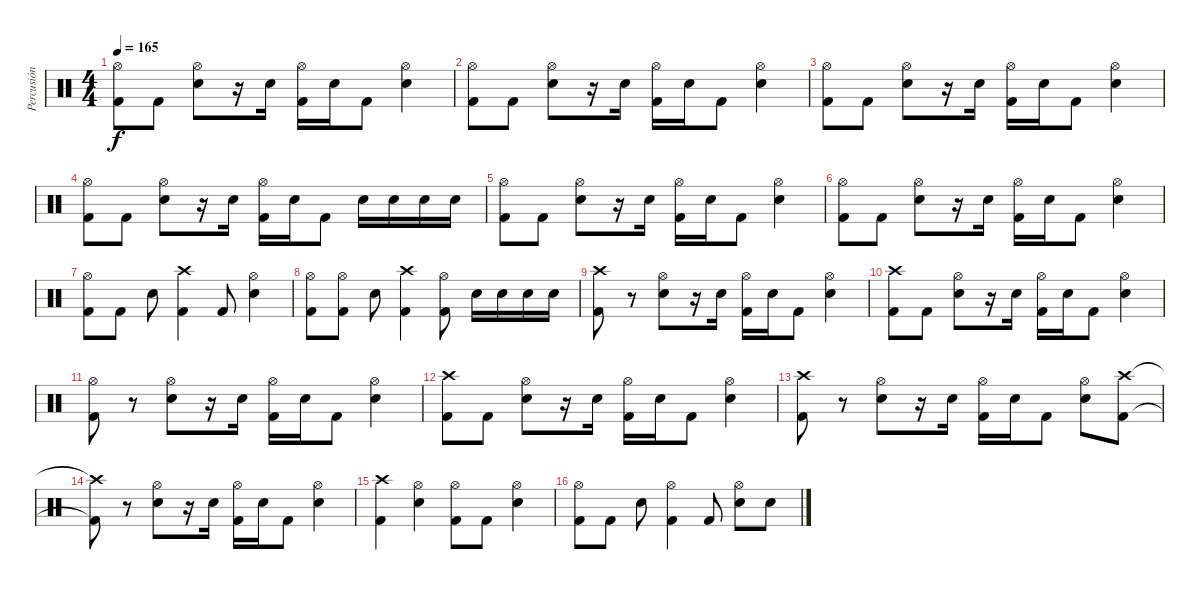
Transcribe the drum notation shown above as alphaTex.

\track ("Percusión" "Percusión") {instrument percussion}
\staff {score}
\articulation defaults
\ts (4 4)
\tempo 165
\clef neutral
\ks c
("Hi-Hat (open)" "Kick (hit) 2").8{dy f} "Kick (hit) 2".8 ("Hi-Hat (open)" "Electric Snare (hit)").8 r.16 "Electric Snare (hit)".16 ("Hi-Hat (open)" "Kick (hit) 2").16 "Electric Snare (hit)".16 "Kick (hit) 2".8 ("Hi-Hat (open)" "Electric Snare (hit)").4 |
("Hi-Hat (open)" "Kick (hit) 2").8 "Kick (hit) 2".8 ("Hi-Hat (open)" "Electric Snare (hit)").8 r.16 "Electric Snare (hit)".16 ("Hi-Hat (open)" "Kick (hit) 2").16 "Electric Snare (hit)".16 "Kick (hit) 2".8 ("Hi-Hat (open)" "Electric Snare (hit)").4 |
("Hi-Hat (open)" "Kick (hit) 2").8 "Kick (hit) 2".8 ("Hi-Hat (open)" "Electric Snare (hit)").8 r.16 "Electric Snare (hit)".16 ("Hi-Hat (open)" "Kick (hit) 2").16 "Electric Snare (hit)".16 "Kick (hit) 2".8 ("Hi-Hat (open)" "Electric Snare (hit)").4 |
("Hi-Hat (open)" "Kick (hit) 2").8 "Kick (hit) 2".8 ("Hi-Hat (open)" "Electric Snare (hit)").8 r.16 "Electric Snare (hit)".16 ("Hi-Hat (open)" "Kick (hit) 2").16 "Electric Snare (hit)".16 "Kick (hit) 2".8 "Electric Snare (hit)".16 "Electric Snare (hit)".16 "Electric Snare (hit)".16 "Electric Snare (hit)".16 |
("Hi-Hat (open)" "Kick (hit) 2").8 "Kick (hit) 2".8 ("Hi-Hat (open)" "Electric Snare (hit)").8 r.16 "Electric Snare (hit)".16 ("Hi-Hat (open)" "Kick (hit) 2").16 "Electric Snare (hit)".16 "Kick (hit) 2".8 ("Hi-Hat (open)" "Electric Snare (hit)").4 |
("Hi-Hat (open)" "Kick (hit) 2").8 "Kick (hit) 2".8 ("Hi-Hat (open)" "Electric Snare (hit)").8 r.16 "Electric Snare (hit)".16 ("Hi-Hat (open)" "Kick (hit) 2").16 "Electric Snare (hit)".16 "Kick (hit) 2".8 ("Hi-Hat (open)" "Electric Snare (hit)").4 |
("Hi-Hat (open)" "Kick (hit) 2").8 "Kick (hit) 2".8 "Electric Snare (hit)".8 ("Crash high (hit)" "Kick (hit) 2").4 "Kick (hit) 2".8 ("Hi-Hat (open)" "Electric Snare (hit)").4 |
("Hi-Hat (open)" "Kick (hit) 2").8 ("Hi-Hat (open)" "Kick (hit) 2").8 "Electric Snare (hit)".8 ("Crash high (hit)" "Kick (hit) 2").4 ("Hi-Hat (open)" "Kick (hit) 2").8 "Electric Snare (hit)".16 "Electric Snare (hit)".16 "Electric Snare (hit)".16 "Electric Snare (hit)".16 |
("Crash high (hit)" "Kick (hit) 2").8 r.8 ("Hi-Hat (open)" "Electric Snare (hit)").8 r.16 "Electric Snare (hit)".16 ("Hi-Hat (open)" "Kick (hit) 2").16 "Electric Snare (hit)".16 "Kick (hit) 2".8 ("Hi-Hat (open)" "Electric Snare (hit)").4 |
("Crash high (hit)" "Kick (hit) 2").8 "Kick (hit) 2".8 ("Hi-Hat (open)" "Electric Snare (hit)").8 r.16 "Electric Snare (hit)".16 ("Hi-Hat (open)" "Kick (hit) 2").16 "Electric Snare (hit)".16 "Kick (hit) 2".8 ("Hi-Hat (open)" "Electric Snare (hit)").4 |
("Hi-Hat (open)" "Kick (hit) 2").8 r.8 ("Hi-Hat (open)" "Electric Snare (hit)").8 r.16 "Electric Snare (hit)".16 ("Hi-Hat (open)" "Kick (hit) 2").16 "Electric Snare (hit)".16 "Kick (hit) 2".8 ("Hi-Hat (open)" "Electric Snare (hit)").4 |
("Crash high (hit)" "Kick (hit) 2").8 "Kick (hit) 2".8 ("Hi-Hat (open)" "Electric Snare (hit)").8 r.16 "Electric Snare (hit)".16 ("Hi-Hat (open)" "Kick (hit) 2").16 "Electric Snare (hit)".16 "Kick (hit) 2".8 ("Hi-Hat (open)" "Electric Snare (hit)").4 |
("Crash high (hit)" "Kick (hit) 2").8 r.8 ("Hi-Hat (open)" "Electric Snare (hit)").8 r.16 "Electric Snare (hit)".16 ("Hi-Hat (open)" "Kick (hit) 2").16 "Electric Snare (hit)".16 "Kick (hit) 2".8 ("Hi-Hat (open)" "Electric Snare (hit)").8 ("Crash high (hit)" "Kick (hit) 2").8 |
("Crash high (hit)"{t} "Kick (hit) 2"{t}).8 r.8 ("Hi-Hat (open)" "Electric Snare (hit)").8 r.16 "Electric Snare (hit)".16 ("Hi-Hat (open)" "Kick (hit) 2").16 "Electric Snare (hit)".16 "Kick (hit) 2".8 ("Hi-Hat (open)" "Electric Snare (hit)").4 |
("Crash high (hit)" "Kick (hit) 2").4 ("Hi-Hat (open)" "Electric Snare (hit)").4 ("Hi-Hat (open)" "Kick (hit) 2").8 "Kick (hit) 2".8 ("Hi-Hat (open)" "Electric Snare (hit)").4 |
("Hi-Hat (open)" "Kick (hit) 2").8 "Kick (hit) 2".8 "Electric Snare (hit)".8 ("Hi-Hat (open)" "Kick (hit) 2").4 "Kick (hit) 2".8 ("Hi-Hat (open)" "Electric Snare (hit)").8 "Electric Snare (hit)".8
